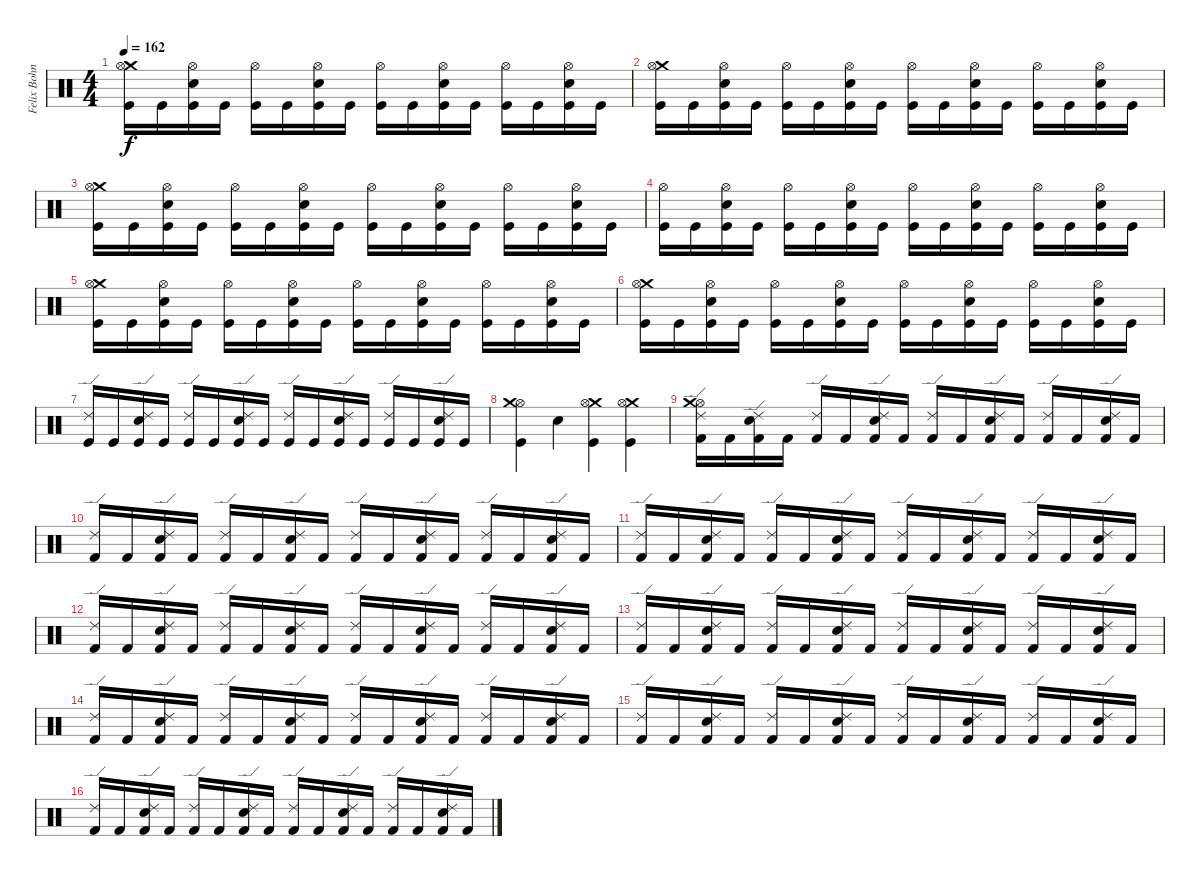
\track ("Felix Bohnke" "Felix Bohn") {instrument percussion}
\staff {score}
\articulation defaults
\ts (4 4)
\tempo 162
\clef neutral
\ks c
("Crash medium (hit)" "Hi-Hat (open)" "Kick (hit)").16{dy f} "Kick (hit)".16 ("Electric Snare (hit)" "Hi-Hat (open)" "Kick (hit)").16 "Kick (hit)".16 ("Hi-Hat (open)" "Kick (hit)").16 "Kick (hit)".16 ("Electric Snare (hit)" "Hi-Hat (open)" "Kick (hit)").16 "Kick (hit)".16 ("Hi-Hat (open)" "Kick (hit)").16 "Kick (hit)".16 ("Electric Snare (hit)" "Hi-Hat (open)" "Kick (hit)").16 "Kick (hit)".16 ("Hi-Hat (open)" "Kick (hit)").16 "Kick (hit)".16 ("Electric Snare (hit)" "Hi-Hat (open)" "Kick (hit)").16 "Kick (hit)".16 |
("Crash medium (hit)" "Hi-Hat (open)" "Kick (hit)").16 "Kick (hit)".16 ("Electric Snare (hit)" "Hi-Hat (open)" "Kick (hit)").16 "Kick (hit)".16 ("Hi-Hat (open)" "Kick (hit)").16 "Kick (hit)".16 ("Electric Snare (hit)" "Hi-Hat (open)" "Kick (hit)").16 "Kick (hit)".16 ("Hi-Hat (open)" "Kick (hit)").16 "Kick (hit)".16 ("Electric Snare (hit)" "Hi-Hat (open)" "Kick (hit)").16 "Kick (hit)".16 ("Hi-Hat (open)" "Kick (hit)").16 "Kick (hit)".16 ("Electric Snare (hit)" "Hi-Hat (open)" "Kick (hit)").16 "Kick (hit)".16 |
("Crash medium (hit)" "Hi-Hat (open)" "Kick (hit)").16 "Kick (hit)".16 ("Electric Snare (hit)" "Hi-Hat (open)" "Kick (hit)").16 "Kick (hit)".16 ("Hi-Hat (open)" "Kick (hit)").16 "Kick (hit)".16 ("Electric Snare (hit)" "Hi-Hat (open)" "Kick (hit)").16 "Kick (hit)".16 ("Hi-Hat (open)" "Kick (hit)").16 "Kick (hit)".16 ("Electric Snare (hit)" "Hi-Hat (open)" "Kick (hit)").16 "Kick (hit)".16 ("Hi-Hat (open)" "Kick (hit)").16 "Kick (hit)".16 ("Electric Snare (hit)" "Hi-Hat (open)" "Kick (hit)").16 "Kick (hit)".16 |
("Hi-Hat (open)" "Kick (hit)").16 "Kick (hit)".16 ("Electric Snare (hit)" "Hi-Hat (open)" "Kick (hit)").16 "Kick (hit)".16 ("Hi-Hat (open)" "Kick (hit)").16 "Kick (hit)".16 ("Electric Snare (hit)" "Hi-Hat (open)" "Kick (hit)").16 "Kick (hit)".16 ("Hi-Hat (open)" "Kick (hit)").16 "Kick (hit)".16 ("Electric Snare (hit)" "Hi-Hat (open)" "Kick (hit)").16 "Kick (hit)".16 ("Hi-Hat (open)" "Kick (hit)").16 "Kick (hit)".16 ("Electric Snare (hit)" "Hi-Hat (open)" "Kick (hit)").16 "Kick (hit)".16 |
("Crash medium (hit)" "Hi-Hat (open)" "Kick (hit)").16 "Kick (hit)".16 ("Electric Snare (hit)" "Hi-Hat (open)" "Kick (hit)").16 "Kick (hit)".16 ("Hi-Hat (open)" "Kick (hit)").16 "Kick (hit)".16 ("Electric Snare (hit)" "Hi-Hat (open)" "Kick (hit)").16 "Kick (hit)".16 ("Hi-Hat (open)" "Kick (hit)").16 "Kick (hit)".16 ("Electric Snare (hit)" "Hi-Hat (open)" "Kick (hit)").16 "Kick (hit)".16 ("Hi-Hat (open)" "Kick (hit)").16 "Kick (hit)".16 ("Electric Snare (hit)" "Hi-Hat (open)" "Kick (hit)").16 "Kick (hit)".16 |
("Crash medium (hit)" "Hi-Hat (open)" "Kick (hit)").16 "Kick (hit)".16 ("Electric Snare (hit)" "Hi-Hat (open)" "Kick (hit)").16 "Kick (hit)".16 ("Hi-Hat (open)" "Kick (hit)").16 "Kick (hit)".16 ("Electric Snare (hit)" "Hi-Hat (open)" "Kick (hit)").16 "Kick (hit)".16 ("Hi-Hat (open)" "Kick (hit)").16 "Kick (hit)".16 ("Electric Snare (hit)" "Hi-Hat (open)" "Kick (hit)").16 "Kick (hit)".16 ("Hi-Hat (open)" "Kick (hit)").16 "Kick (hit)".16 ("Electric Snare (hit)" "Hi-Hat (open)" "Kick (hit)").16 "Kick (hit)".16 |
("Kick (hit)" "Ride (edge) 2").16 "Kick (hit)".16 ("Electric Snare (hit)" "Kick (hit)" "Ride (edge) 2").16 "Kick (hit)".16 ("Kick (hit)" "Ride (edge) 2").16 "Kick (hit)".16 ("Electric Snare (hit)" "Kick (hit)" "Ride (edge) 2").16 "Kick (hit)".16 ("Kick (hit)" "Ride (edge) 2").16 "Kick (hit)".16 ("Electric Snare (hit)" "Kick (hit)" "Ride (edge) 2").16 "Kick (hit)".16 ("Kick (hit)" "Ride (edge) 2").16 "Kick (hit)".16 ("Electric Snare (hit)" "Kick (hit)" "Ride (edge) 2").16 "Kick (hit)".16 |
("Kick (hit)" "Hi-Hat (open)" "Crash medium (hit)").4 "Electric Snare (hit)".4 ("Crash medium (hit)" "Hi-Hat (open)" "Kick (hit)").4 ("Crash medium (hit)" "Hi-Hat (open)" "Kick (hit)").4 |
("Hi-Hat (open)" "Crash medium (hit)" "Ride (edge) 2" "Kick (hit) 2").16 "Kick (hit) 2".16 ("Electric Snare (hit)" "Ride (edge) 2" "Kick (hit) 2").16 "Kick (hit) 2".16 ("Ride (edge) 2" "Kick (hit) 2").16 "Kick (hit) 2".16 ("Electric Snare (hit)" "Ride (edge) 2" "Kick (hit) 2").16 "Kick (hit) 2".16 ("Ride (edge) 2" "Kick (hit) 2").16 "Kick (hit) 2".16 ("Electric Snare (hit)" "Ride (edge) 2" "Kick (hit) 2").16 "Kick (hit) 2".16 ("Ride (edge) 2" "Kick (hit) 2").16 "Kick (hit) 2".16 ("Electric Snare (hit)" "Ride (edge) 2" "Kick (hit) 2").16 "Kick (hit) 2".16 |
("Ride (edge) 2" "Kick (hit) 2").16 "Kick (hit) 2".16 ("Electric Snare (hit)" "Ride (edge) 2" "Kick (hit) 2").16 "Kick (hit) 2".16 ("Ride (edge) 2" "Kick (hit) 2").16 "Kick (hit) 2".16 ("Electric Snare (hit)" "Ride (edge) 2" "Kick (hit) 2").16 "Kick (hit) 2".16 ("Ride (edge) 2" "Kick (hit) 2").16 "Kick (hit) 2".16 ("Electric Snare (hit)" "Ride (edge) 2" "Kick (hit) 2").16 "Kick (hit) 2".16 ("Ride (edge) 2" "Kick (hit) 2").16 "Kick (hit) 2".16 ("Electric Snare (hit)" "Ride (edge) 2" "Kick (hit) 2").16 "Kick (hit) 2".16 |
("Ride (edge) 2" "Kick (hit) 2").16 "Kick (hit) 2".16 ("Electric Snare (hit)" "Ride (edge) 2" "Kick (hit) 2").16 "Kick (hit) 2".16 ("Ride (edge) 2" "Kick (hit) 2").16 "Kick (hit) 2".16 ("Electric Snare (hit)" "Ride (edge) 2" "Kick (hit) 2").16 "Kick (hit) 2".16 ("Ride (edge) 2" "Kick (hit) 2").16 "Kick (hit) 2".16 ("Electric Snare (hit)" "Ride (edge) 2" "Kick (hit) 2").16 "Kick (hit) 2".16 ("Ride (edge) 2" "Kick (hit) 2").16 "Kick (hit) 2".16 ("Electric Snare (hit)" "Ride (edge) 2" "Kick (hit) 2").16 "Kick (hit) 2".16 |
("Ride (edge) 2" "Kick (hit) 2").16 "Kick (hit) 2".16 ("Electric Snare (hit)" "Ride (edge) 2" "Kick (hit) 2").16 "Kick (hit) 2".16 ("Ride (edge) 2" "Kick (hit) 2").16 "Kick (hit) 2".16 ("Electric Snare (hit)" "Ride (edge) 2" "Kick (hit) 2").16 "Kick (hit) 2".16 ("Ride (edge) 2" "Kick (hit) 2").16 "Kick (hit) 2".16 ("Electric Snare (hit)" "Ride (edge) 2" "Kick (hit) 2").16 "Kick (hit) 2".16 ("Ride (edge) 2" "Kick (hit) 2").16 "Kick (hit) 2".16 ("Electric Snare (hit)" "Ride (edge) 2" "Kick (hit) 2").16 "Kick (hit) 2".16 |
("Ride (edge) 2" "Kick (hit) 2").16 "Kick (hit) 2".16 ("Electric Snare (hit)" "Ride (edge) 2" "Kick (hit) 2").16 "Kick (hit) 2".16 ("Ride (edge) 2" "Kick (hit) 2").16 "Kick (hit) 2".16 ("Electric Snare (hit)" "Ride (edge) 2" "Kick (hit) 2").16 "Kick (hit) 2".16 ("Ride (edge) 2" "Kick (hit) 2").16 "Kick (hit) 2".16 ("Electric Snare (hit)" "Ride (edge) 2" "Kick (hit) 2").16 "Kick (hit) 2".16 ("Ride (edge) 2" "Kick (hit) 2").16 "Kick (hit) 2".16 ("Electric Snare (hit)" "Ride (edge) 2" "Kick (hit) 2").16 "Kick (hit) 2".16 |
("Ride (edge) 2" "Kick (hit) 2").16 "Kick (hit) 2".16 ("Electric Snare (hit)" "Ride (edge) 2" "Kick (hit) 2").16 "Kick (hit) 2".16 ("Ride (edge) 2" "Kick (hit) 2").16 "Kick (hit) 2".16 ("Electric Snare (hit)" "Ride (edge) 2" "Kick (hit) 2").16 "Kick (hit) 2".16 ("Ride (edge) 2" "Kick (hit) 2").16 "Kick (hit) 2".16 ("Electric Snare (hit)" "Ride (edge) 2" "Kick (hit) 2").16 "Kick (hit) 2".16 ("Ride (edge) 2" "Kick (hit) 2").16 "Kick (hit) 2".16 ("Electric Snare (hit)" "Ride (edge) 2" "Kick (hit) 2").16 "Kick (hit) 2".16 |
("Ride (edge) 2" "Kick (hit) 2").16 "Kick (hit) 2".16 ("Electric Snare (hit)" "Ride (edge) 2" "Kick (hit) 2").16 "Kick (hit) 2".16 ("Ride (edge) 2" "Kick (hit) 2").16 "Kick (hit) 2".16 ("Electric Snare (hit)" "Ride (edge) 2" "Kick (hit) 2").16 "Kick (hit) 2".16 ("Ride (edge) 2" "Kick (hit) 2").16 "Kick (hit) 2".16 ("Electric Snare (hit)" "Ride (edge) 2" "Kick (hit) 2").16 "Kick (hit) 2".16 ("Ride (edge) 2" "Kick (hit) 2").16 "Kick (hit) 2".16 ("Electric Snare (hit)" "Ride (edge) 2" "Kick (hit) 2").16 "Kick (hit) 2".16 |
("Ride (edge) 2" "Kick (hit) 2").16 "Kick (hit) 2".16 ("Electric Snare (hit)" "Ride (edge) 2" "Kick (hit) 2").16 "Kick (hit) 2".16 ("Ride (edge) 2" "Kick (hit) 2").16 "Kick (hit) 2".16 ("Electric Snare (hit)" "Ride (edge) 2" "Kick (hit) 2").16 "Kick (hit) 2".16 ("Ride (edge) 2" "Kick (hit) 2").16 "Kick (hit) 2".16 ("Electric Snare (hit)" "Ride (edge) 2" "Kick (hit) 2").16 "Kick (hit) 2".16 ("Ride (edge) 2" "Kick (hit) 2").16 "Kick (hit) 2".16 ("Electric Snare (hit)" "Ride (edge) 2" "Kick (hit) 2").16 "Kick (hit) 2".16
